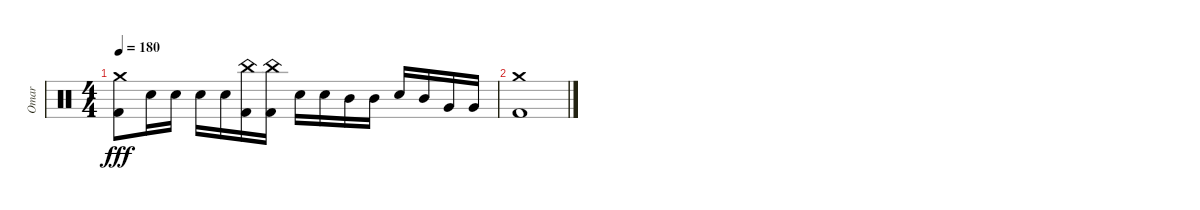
\track ("Omar" "Omar") {instrument percussion}
\staff {score}
\articulation defaults
\ts (4 4)
\tempo 180
\clef neutral
\ks c
("Crash medium (hit)" "Kick (hit) 2").8{dy fff} "Electric Snare (hit)".16 "Electric Snare (hit)".16 "Electric Snare (hit)".16 "Electric Snare (hit)".16 ("China (hit)" "Kick (hit) 2").16 ("China (hit)" "Kick (hit) 2").16 "Electric Snare (hit)".16 "Electric Snare (hit)".16 "Mid Tom (hit)".16 "Mid Tom (hit)".16 "Electric Snare (hit)".16 "Mid Tom (hit)".16 "Very Low Tom (hit)".16 "Very Low Tom (hit)".16 |
("Crash medium (hit)" "Kick (hit) 2").1
